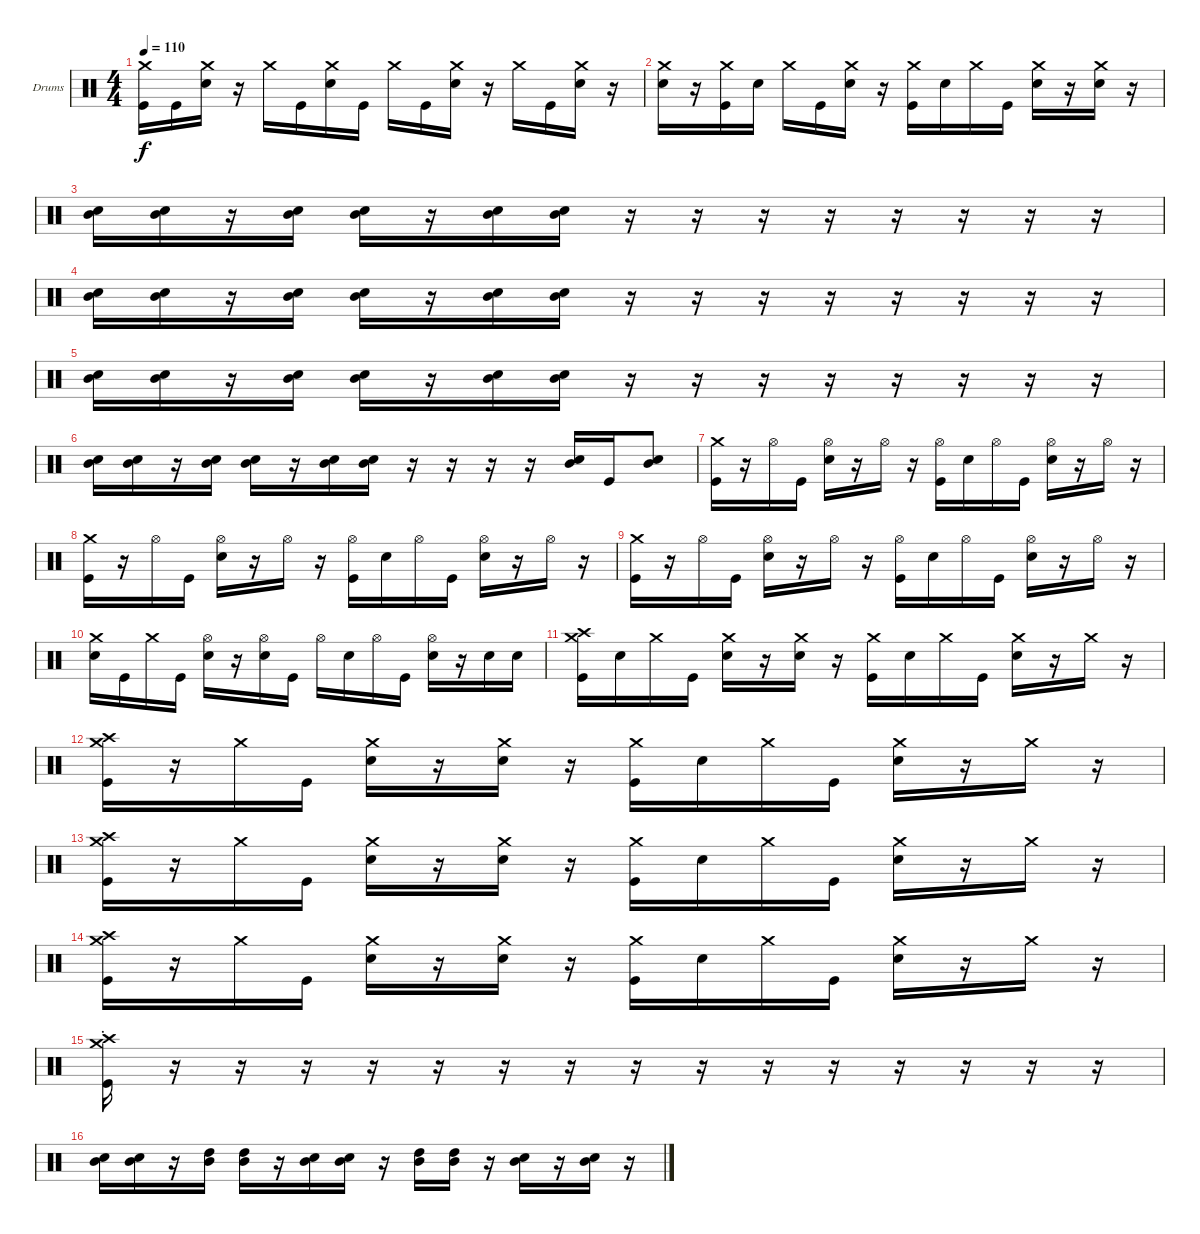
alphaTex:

\bracketExtendMode groupsimilarinstruments
\firstSystemTrackNameOrientation horizontal
\otherSystemsTrackNameOrientation horizontal
\track ("Drumkit" "Drums") {instrument percussion}
\staff {score}
\articulation defaults
\ts (4 4)
\tempo 110
\clef neutral
\ks c
("Crash medium (hit)" "Kick (hit)").16{dy f} "Kick (hit)".16 ("Crash medium (hit)" "Snare (hit) 2").16 r.16 "Crash medium (hit)".16 "Kick (hit)".16 ("Crash medium (hit)" "Snare (hit) 2").16 "Kick (hit)".16 "Crash medium (hit)".16 "Kick (hit)".16 ("Crash medium (hit)" "Snare (hit) 2").16 r.16 "Crash medium (hit)".16 "Kick (hit)".16 ("Crash medium (hit)" "Snare (hit) 2").16 r.16 |
("Crash medium (hit)" "Snare (hit) 2").16 r.16 ("Crash medium (hit)" "Kick (hit)").16 "Snare (hit) 2".16 "Crash medium (hit)".16 "Kick (hit)".16 ("Crash medium (hit)" "Snare (hit) 2").16 r.16 ("Crash medium (hit)" "Kick (hit)").16 "Snare (hit) 2".16 "Crash medium (hit)".16 "Kick (hit)".16 ("Crash medium (hit)" "Snare (hit) 2").16 r.16 ("Crash medium (hit)" "Snare (hit) 2").16 r.16 |
("Snare (hit) 2" "Mid Tom (hit)").16 ("Snare (hit) 2" "Mid Tom (hit)").16 r.16 ("Snare (hit) 2" "Mid Tom (hit)").16 ("Snare (hit) 2" "Mid Tom (hit)").16 r.16 ("Snare (hit) 2" "Mid Tom (hit)").16 ("Snare (hit) 2" "Mid Tom (hit)").16 r.16 r.16 r.16 r.16 r.16 r.16 r.16 r.16 |
("Snare (hit) 2" "Mid Tom (hit)").16 ("Snare (hit) 2" "Mid Tom (hit)").16 r.16 ("Snare (hit) 2" "Mid Tom (hit)").16 ("Snare (hit) 2" "Mid Tom (hit)").16 r.16 ("Snare (hit) 2" "Mid Tom (hit)").16 ("Snare (hit) 2" "Mid Tom (hit)").16 r.16 r.16 r.16 r.16 r.16 r.16 r.16 r.16 |
("Snare (hit) 2" "Mid Tom (hit)").16 ("Snare (hit) 2" "Mid Tom (hit)").16 r.16 ("Snare (hit) 2" "Mid Tom (hit)").16 ("Snare (hit) 2" "Mid Tom (hit)").16 r.16 ("Snare (hit) 2" "Mid Tom (hit)").16 ("Snare (hit) 2" "Mid Tom (hit)").16 r.16 r.16 r.16 r.16 r.16 r.16 r.16 r.16 |
("Snare (hit) 2" "Mid Tom (hit)").16 ("Snare (hit) 2" "Mid Tom (hit)").16 r.16 ("Snare (hit) 2" "Mid Tom (hit)").16 ("Snare (hit) 2" "Mid Tom (hit)").16 r.16 ("Snare (hit) 2" "Mid Tom (hit)").16 ("Snare (hit) 2" "Mid Tom (hit)").16 r.16 r.16 r.16 r.16 ("Snare (hit) 2" "Mid Tom (hit)").16 "Kick (hit)".16 ("Snare (hit) 2" "Mid Tom (hit)").8 |
("Crash medium (hit)" "Kick (hit)").16 r.16 "Hi-Hat (open)".16 "Kick (hit)".16 ("Hi-Hat (open)" "Snare (hit) 2").16 r.16 "Hi-Hat (open)".16 r.16 ("Hi-Hat (open)" "Kick (hit)").16 "Snare (hit) 2".16 "Hi-Hat (open)".16 "Kick (hit)".16 ("Hi-Hat (open)" "Snare (hit) 2").16 r.16 "Hi-Hat (open)".16 r.16 |
("Crash medium (hit)" "Kick (hit)").16 r.16 "Hi-Hat (open)".16 "Kick (hit)".16 ("Hi-Hat (open)" "Snare (hit) 2").16 r.16 "Hi-Hat (open)".16 r.16 ("Hi-Hat (open)" "Kick (hit)").16 "Snare (hit) 2".16 "Hi-Hat (open)".16 "Kick (hit)".16 ("Hi-Hat (open)" "Snare (hit) 2").16 r.16 "Hi-Hat (open)".16 r.16 |
("Crash medium (hit)" "Kick (hit)").16 r.16 "Hi-Hat (open)".16 "Kick (hit)".16 ("Hi-Hat (open)" "Snare (hit) 2").16 r.16 "Hi-Hat (open)".16 r.16 ("Hi-Hat (open)" "Kick (hit)").16 "Snare (hit) 2".16 "Hi-Hat (open)".16 "Kick (hit)".16 ("Hi-Hat (open)" "Snare (hit) 2").16 r.16 "Hi-Hat (open)".16 r.16 |
("Crash medium (hit)" "Snare (hit) 2").16 "Kick (hit)".16 "Crash medium (hit)".16 "Kick (hit)".16 ("Hi-Hat (open)" "Snare (hit) 2").16 r.16 ("Hi-Hat (open)" "Snare (hit) 2").16 "Kick (hit)".16 "Hi-Hat (open)".16 "Snare (hit) 2".16 "Hi-Hat (open)".16 "Kick (hit)".16 ("Hi-Hat (open)" "Snare (hit) 2").16 r.16 "Snare (hit) 2".16 "Snare (hit) 2".16 |
("Crash high (hit)" "Crash medium (hit)" "Kick (hit)").16 "Snare (hit) 2".16 "Crash medium (hit)".16 "Kick (hit)".16 ("Crash medium (hit)" "Snare (hit) 2").16 r.16 ("Crash medium (hit)" "Snare (hit) 2").16 r.16 ("Crash medium (hit)" "Kick (hit)").16 "Snare (hit) 2".16 "Crash medium (hit)".16 "Kick (hit)".16 ("Crash medium (hit)" "Snare (hit) 2").16 r.16 "Crash medium (hit)".16 r.16 |
("Crash high (hit)" "Crash medium (hit)" "Kick (hit)").16 r.16 "Crash medium (hit)".16 "Kick (hit)".16 ("Crash medium (hit)" "Snare (hit) 2").16 r.16 ("Crash medium (hit)" "Snare (hit) 2").16 r.16 ("Crash medium (hit)" "Kick (hit)").16 "Snare (hit) 2".16 "Crash medium (hit)".16 "Kick (hit)".16 ("Crash medium (hit)" "Snare (hit) 2").16 r.16 "Crash medium (hit)".16 r.16 |
("Crash high (hit)" "Crash medium (hit)" "Kick (hit)").16 r.16 "Crash medium (hit)".16 "Kick (hit)".16 ("Crash medium (hit)" "Snare (hit) 2").16 r.16 ("Crash medium (hit)" "Snare (hit) 2").16 r.16 ("Crash medium (hit)" "Kick (hit)").16 "Snare (hit) 2".16 "Crash medium (hit)".16 "Kick (hit)".16 ("Crash medium (hit)" "Snare (hit) 2").16 r.16 "Crash medium (hit)".16 r.16 |
("Crash high (hit)" "Crash medium (hit)" "Kick (hit)").16 r.16 "Crash medium (hit)".16 "Kick (hit)".16 ("Crash medium (hit)" "Snare (hit) 2").16 r.16 ("Crash medium (hit)" "Snare (hit) 2").16 r.16 ("Crash medium (hit)" "Kick (hit)").16 "Snare (hit) 2".16 "Crash medium (hit)".16 "Kick (hit)".16 ("Crash medium (hit)" "Snare (hit) 2").16 r.16 "Crash medium (hit)".16 r.16 |
("Crash high (hit)"{st} "Crash medium (hit)"{st} "Kick (hit)").16 r.16 r.16 r.16 r.16 r.16 r.16 r.16 r.16 r.16 r.16 r.16 r.16 r.16 r.16 r.16 |
("Snare (hit) 2" "Mid Tom (hit)").16 ("Snare (hit) 2" "Mid Tom (hit)").16 r.16 ("High Tom (hit)" "Mid Tom (hit)").16 ("High Tom (hit)" "Mid Tom (hit)").16 r.16 ("Snare (hit) 2" "Mid Tom (hit)").16 ("Snare (hit) 2" "Mid Tom (hit)").16 r.16 ("High Tom (hit)" "Mid Tom (hit)").16 ("High Tom (hit)" "Mid Tom (hit)").16 r.16 ("Snare (hit) 2" "Mid Tom (hit)").16 r.16 ("Snare (hit) 2" "Mid Tom (hit)").16 r.16
